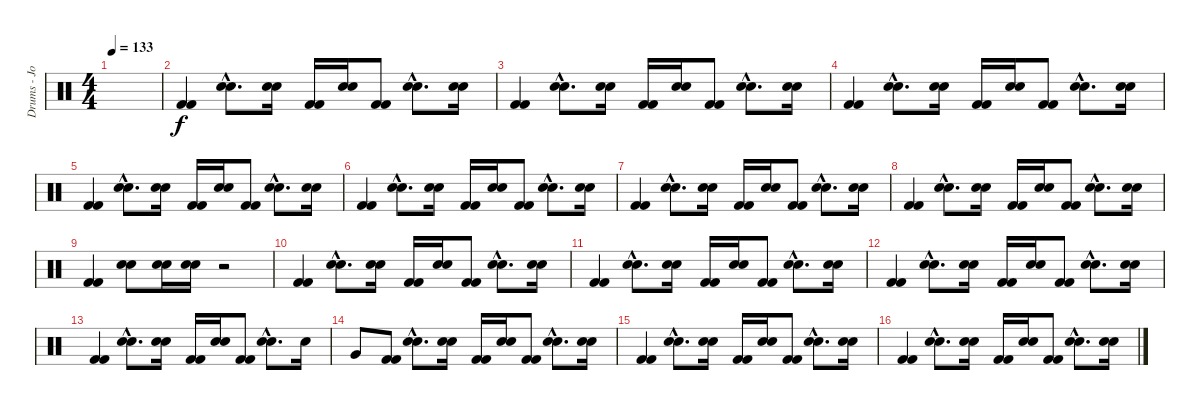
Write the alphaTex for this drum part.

\track ("Drums - Joe Daniels" "Drums - Jo") {instrument percussion}
\staff {score}
\articulation defaults
\ts (4 4)
\tempo 133
\clef neutral
\ks c
|
("Kick (hit) 2" "Kick (hit) 2").4 ("Snare (hit) 2"{hac} "Snare (hit) 2"{hac}).8{d} ("Snare (hit) 2" "Snare (hit) 2").16 ("Kick (hit) 2" "Kick (hit) 2").16 ("Snare (hit) 2" "Snare (hit) 2").16 ("Kick (hit) 2" "Kick (hit) 2").8 ("Snare (hit) 2"{hac} "Snare (hit) 2"{hac}).8{d} ("Snare (hit) 2" "Snare (hit) 2").16 |
("Kick (hit) 2" "Kick (hit) 2").4 ("Snare (hit) 2"{hac} "Snare (hit) 2"{hac}).8{d} ("Snare (hit) 2" "Snare (hit) 2").16 ("Kick (hit) 2" "Kick (hit) 2").16 ("Snare (hit) 2" "Snare (hit) 2").16 ("Kick (hit) 2" "Kick (hit) 2").8 ("Snare (hit) 2"{hac} "Snare (hit) 2"{hac}).8{d} ("Snare (hit) 2" "Snare (hit) 2").16 |
("Kick (hit) 2" "Kick (hit) 2").4 ("Snare (hit) 2"{hac} "Snare (hit) 2"{hac}).8{d} ("Snare (hit) 2" "Snare (hit) 2").16 ("Kick (hit) 2" "Kick (hit) 2").16 ("Snare (hit) 2" "Snare (hit) 2").16 ("Kick (hit) 2" "Kick (hit) 2").8 ("Snare (hit) 2"{hac} "Snare (hit) 2"{hac}).8{d} ("Snare (hit) 2" "Snare (hit) 2").16 |
("Kick (hit) 2" "Kick (hit) 2").4 ("Snare (hit) 2"{hac} "Snare (hit) 2"{hac}).8{d} ("Snare (hit) 2" "Snare (hit) 2").16 ("Kick (hit) 2" "Kick (hit) 2").16 ("Snare (hit) 2" "Snare (hit) 2").16 ("Kick (hit) 2" "Kick (hit) 2").8 ("Snare (hit) 2"{hac} "Snare (hit) 2"{hac}).8{d} ("Snare (hit) 2" "Snare (hit) 2").16 |
("Kick (hit) 2" "Kick (hit) 2").4 ("Snare (hit) 2"{hac} "Snare (hit) 2"{hac}).8{d} ("Snare (hit) 2" "Snare (hit) 2").16 ("Kick (hit) 2" "Kick (hit) 2").16 ("Snare (hit) 2" "Snare (hit) 2").16 ("Kick (hit) 2" "Kick (hit) 2").8 ("Snare (hit) 2"{hac} "Snare (hit) 2"{hac}).8{d} ("Snare (hit) 2" "Snare (hit) 2").16 |
("Kick (hit) 2" "Kick (hit) 2").4 ("Snare (hit) 2"{hac} "Snare (hit) 2"{hac}).8{d} ("Snare (hit) 2" "Snare (hit) 2").16 ("Kick (hit) 2" "Kick (hit) 2").16 ("Snare (hit) 2" "Snare (hit) 2").16 ("Kick (hit) 2" "Kick (hit) 2").8 ("Snare (hit) 2"{hac} "Snare (hit) 2"{hac}).8{d} ("Snare (hit) 2" "Snare (hit) 2").16 |
("Kick (hit) 2" "Kick (hit) 2").4 ("Snare (hit) 2"{hac} "Snare (hit) 2"{hac}).8{d} ("Snare (hit) 2" "Snare (hit) 2").16 ("Kick (hit) 2" "Kick (hit) 2").16 ("Snare (hit) 2" "Snare (hit) 2").16 ("Kick (hit) 2" "Kick (hit) 2").8 ("Snare (hit) 2"{hac} "Snare (hit) 2"{hac}).8{d} ("Snare (hit) 2" "Snare (hit) 2").16 |
("Kick (hit) 2" "Kick (hit) 2").4 ("Snare (hit) 2" "Snare (hit) 2").8 ("Snare (hit) 2" "Snare (hit) 2").16 ("Snare (hit) 2" "Snare (hit) 2").16 r.2 |
("Kick (hit) 2" "Kick (hit) 2").4 ("Snare (hit) 2"{hac} "Snare (hit) 2"{hac}).8{d} ("Snare (hit) 2" "Snare (hit) 2").16 ("Kick (hit) 2" "Kick (hit) 2").16 ("Snare (hit) 2" "Snare (hit) 2").16 ("Kick (hit) 2" "Kick (hit) 2").8 ("Snare (hit) 2"{hac} "Snare (hit) 2"{hac}).8{d} ("Snare (hit) 2" "Snare (hit) 2").16 |
("Kick (hit) 2" "Kick (hit) 2").4 ("Snare (hit) 2"{hac} "Snare (hit) 2"{hac}).8{d} ("Snare (hit) 2" "Snare (hit) 2").16 ("Kick (hit) 2" "Kick (hit) 2").16 ("Snare (hit) 2" "Snare (hit) 2").16 ("Kick (hit) 2" "Kick (hit) 2").8 ("Snare (hit) 2"{hac} "Snare (hit) 2"{hac}).8{d} ("Snare (hit) 2" "Snare (hit) 2").16 |
("Kick (hit) 2" "Kick (hit) 2").4 ("Snare (hit) 2"{hac} "Snare (hit) 2"{hac}).8{d} ("Snare (hit) 2" "Snare (hit) 2").16 ("Kick (hit) 2" "Kick (hit) 2").16 ("Snare (hit) 2" "Snare (hit) 2").16 ("Kick (hit) 2" "Kick (hit) 2").8 ("Snare (hit) 2"{hac} "Snare (hit) 2"{hac}).8{d} ("Snare (hit) 2" "Snare (hit) 2").16 |
("Kick (hit) 2" "Kick (hit) 2").4 ("Snare (hit) 2"{hac} "Snare (hit) 2"{hac}).8{d} ("Snare (hit) 2" "Snare (hit) 2").16 ("Kick (hit) 2" "Kick (hit) 2").16 ("Snare (hit) 2" "Snare (hit) 2").16 ("Kick (hit) 2" "Kick (hit) 2").8 ("Snare (hit) 2"{hac} "Snare (hit) 2"{hac}).8{d} "Snare (hit) 2".16 |
"Very Low Tom (hit)".8 ("Kick (hit) 2" "Kick (hit) 2").8 ("Snare (hit) 2"{hac} "Snare (hit) 2"{hac}).8{d} ("Snare (hit) 2" "Snare (hit) 2").16 ("Kick (hit) 2" "Kick (hit) 2").16 ("Snare (hit) 2" "Snare (hit) 2").16 ("Kick (hit) 2" "Kick (hit) 2").8 ("Snare (hit) 2"{hac} "Snare (hit) 2"{hac}).8{d} ("Snare (hit) 2" "Snare (hit) 2").16 |
("Kick (hit) 2" "Kick (hit) 2").4 ("Snare (hit) 2"{hac} "Snare (hit) 2"{hac}).8{d} ("Snare (hit) 2" "Snare (hit) 2").16 ("Kick (hit) 2" "Kick (hit) 2").16 ("Snare (hit) 2" "Snare (hit) 2").16 ("Kick (hit) 2" "Kick (hit) 2").8 ("Snare (hit) 2"{hac} "Snare (hit) 2"{hac}).8{d} ("Snare (hit) 2" "Snare (hit) 2").16 |
("Kick (hit) 2" "Kick (hit) 2").4 ("Snare (hit) 2"{hac} "Snare (hit) 2"{hac}).8{d} ("Snare (hit) 2" "Snare (hit) 2").16 ("Kick (hit) 2" "Kick (hit) 2").16 ("Snare (hit) 2" "Snare (hit) 2").16 ("Kick (hit) 2" "Kick (hit) 2").8 ("Snare (hit) 2"{hac} "Snare (hit) 2"{hac}).8{d} ("Snare (hit) 2" "Snare (hit) 2").16
